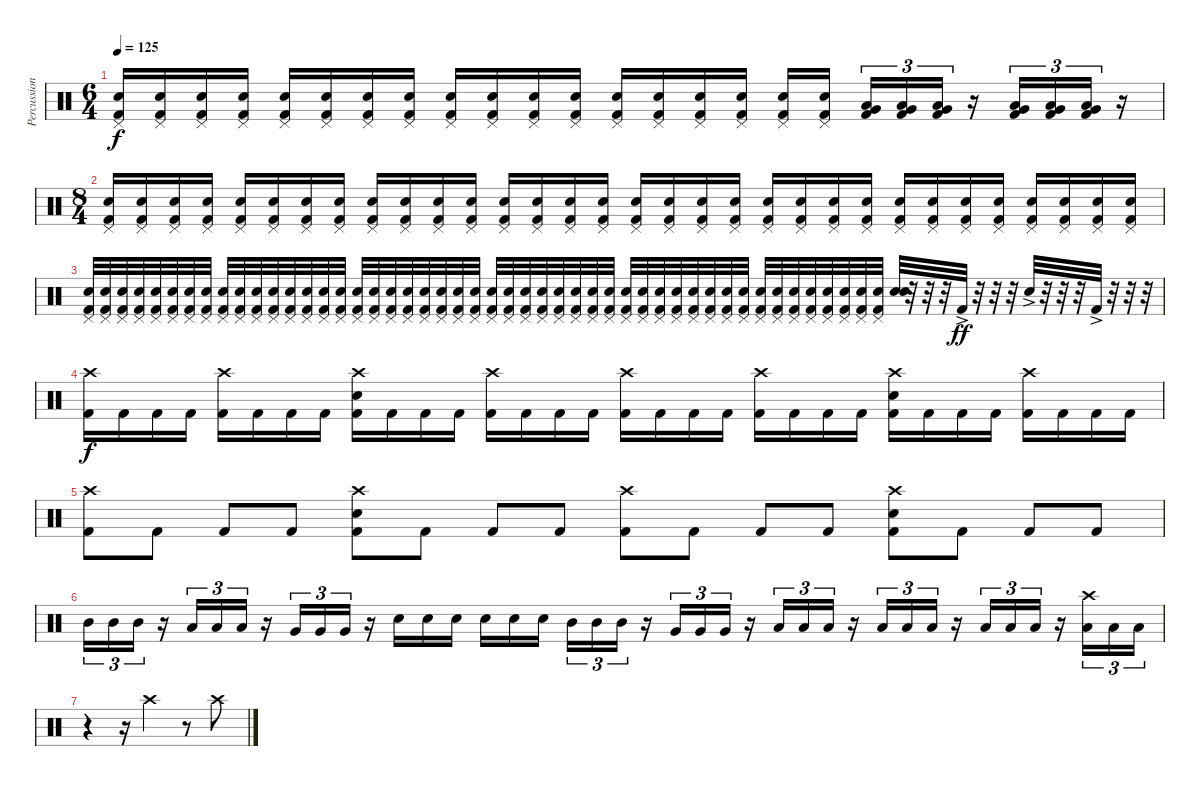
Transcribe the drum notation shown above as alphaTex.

\track ("Percussion" "Percussion") {instrument percussion}
\staff {score}
\articulation defaults
\ts (6 4)
\tempo 125
\clef neutral
\ks c
("Pedal Hi-Hat (hit)" "Electric Snare (hit)" "Kick (hit) 2").16{dy f} ("Pedal Hi-Hat (hit)" "Electric Snare (hit)" "Kick (hit) 2").16 ("Pedal Hi-Hat (hit)" "Electric Snare (hit)" "Kick (hit) 2").16 ("Pedal Hi-Hat (hit)" "Electric Snare (hit)" "Kick (hit) 2").16 ("Pedal Hi-Hat (hit)" "Electric Snare (hit)" "Kick (hit) 2").16 ("Pedal Hi-Hat (hit)" "Electric Snare (hit)" "Kick (hit) 2").16 ("Pedal Hi-Hat (hit)" "Electric Snare (hit)" "Kick (hit) 2").16 ("Pedal Hi-Hat (hit)" "Electric Snare (hit)" "Kick (hit) 2").16 ("Pedal Hi-Hat (hit)" "Electric Snare (hit)" "Kick (hit) 2").16 ("Pedal Hi-Hat (hit)" "Electric Snare (hit)" "Kick (hit) 2").16 ("Pedal Hi-Hat (hit)" "Electric Snare (hit)" "Kick (hit) 2").16 ("Pedal Hi-Hat (hit)" "Electric Snare (hit)" "Kick (hit) 2").16 ("Pedal Hi-Hat (hit)" "Electric Snare (hit)" "Kick (hit) 2").16 ("Pedal Hi-Hat (hit)" "Electric Snare (hit)" "Kick (hit) 2").16 ("Pedal Hi-Hat (hit)" "Electric Snare (hit)" "Kick (hit) 2").16 ("Pedal Hi-Hat (hit)" "Electric Snare (hit)" "Kick (hit) 2").16 ("Pedal Hi-Hat (hit)" "Electric Snare (hit)" "Kick (hit) 2").16 ("Pedal Hi-Hat (hit)" "Electric Snare (hit)" "Kick (hit) 2").16{beam splitsecondary} ("Very Low Tom (hit)" "Low Floor Tom (hit)" "Kick (hit) 2").16{tu (3 2)} ("Very Low Tom (hit)" "Low Floor Tom (hit)" "Kick (hit) 2").16{tu (3 2)} ("Very Low Tom (hit)" "Low Floor Tom (hit)" "Kick (hit) 2").16{tu (3 2)} r.16 ("Very Low Tom (hit)" "Low Floor Tom (hit)" "Kick (hit) 2").16{tu (3 2)} ("Very Low Tom (hit)" "Low Floor Tom (hit)" "Kick (hit) 2").16{tu (3 2)} ("Very Low Tom (hit)" "Low Floor Tom (hit)" "Kick (hit) 2").16{tu (3 2)} r.16 |
\ts (8 4)
("Pedal Hi-Hat (hit)" "Electric Snare (hit)" "Kick (hit) 2").16 ("Pedal Hi-Hat (hit)" "Electric Snare (hit)" "Kick (hit) 2").16 ("Pedal Hi-Hat (hit)" "Electric Snare (hit)" "Kick (hit) 2").16 ("Pedal Hi-Hat (hit)" "Electric Snare (hit)" "Kick (hit) 2").16 ("Pedal Hi-Hat (hit)" "Electric Snare (hit)" "Kick (hit) 2").16 ("Pedal Hi-Hat (hit)" "Electric Snare (hit)" "Kick (hit) 2").16 ("Pedal Hi-Hat (hit)" "Electric Snare (hit)" "Kick (hit) 2").16 ("Pedal Hi-Hat (hit)" "Electric Snare (hit)" "Kick (hit) 2").16 ("Pedal Hi-Hat (hit)" "Electric Snare (hit)" "Kick (hit) 2").16 ("Pedal Hi-Hat (hit)" "Electric Snare (hit)" "Kick (hit) 2").16 ("Pedal Hi-Hat (hit)" "Electric Snare (hit)" "Kick (hit) 2").16 ("Pedal Hi-Hat (hit)" "Electric Snare (hit)" "Kick (hit) 2").16 ("Pedal Hi-Hat (hit)" "Electric Snare (hit)" "Kick (hit) 2").16 ("Pedal Hi-Hat (hit)" "Electric Snare (hit)" "Kick (hit) 2").16 ("Pedal Hi-Hat (hit)" "Electric Snare (hit)" "Kick (hit) 2").16 ("Pedal Hi-Hat (hit)" "Electric Snare (hit)" "Kick (hit) 2").16 ("Pedal Hi-Hat (hit)" "Electric Snare (hit)" "Kick (hit) 2").16 ("Pedal Hi-Hat (hit)" "Electric Snare (hit)" "Kick (hit) 2").16 ("Pedal Hi-Hat (hit)" "Electric Snare (hit)" "Kick (hit) 2").16 ("Pedal Hi-Hat (hit)" "Electric Snare (hit)" "Kick (hit) 2").16 ("Pedal Hi-Hat (hit)" "Electric Snare (hit)" "Kick (hit) 2").16 ("Pedal Hi-Hat (hit)" "Electric Snare (hit)" "Kick (hit) 2").16 ("Pedal Hi-Hat (hit)" "Electric Snare (hit)" "Kick (hit) 2").16 ("Pedal Hi-Hat (hit)" "Electric Snare (hit)" "Kick (hit) 2").16 ("Pedal Hi-Hat (hit)" "Electric Snare (hit)" "Kick (hit) 2").16 ("Pedal Hi-Hat (hit)" "Electric Snare (hit)" "Kick (hit) 2").16 ("Pedal Hi-Hat (hit)" "Electric Snare (hit)" "Kick (hit) 2").16 ("Pedal Hi-Hat (hit)" "Electric Snare (hit)" "Kick (hit) 2").16 ("Pedal Hi-Hat (hit)" "Electric Snare (hit)" "Kick (hit) 2").16 ("Pedal Hi-Hat (hit)" "Electric Snare (hit)" "Kick (hit) 2").16 ("Pedal Hi-Hat (hit)" "Electric Snare (hit)" "Kick (hit) 2").16 ("Pedal Hi-Hat (hit)" "Electric Snare (hit)" "Kick (hit) 2").16 |
("Pedal Hi-Hat (hit)" "Electric Snare (hit)" "Kick (hit) 2").32 ("Pedal Hi-Hat (hit)" "Electric Snare (hit)" "Kick (hit) 2").32 ("Pedal Hi-Hat (hit)" "Electric Snare (hit)" "Kick (hit) 2").32 ("Pedal Hi-Hat (hit)" "Electric Snare (hit)" "Kick (hit) 2").32 ("Pedal Hi-Hat (hit)" "Electric Snare (hit)" "Kick (hit) 2").32 ("Pedal Hi-Hat (hit)" "Electric Snare (hit)" "Kick (hit) 2").32 ("Pedal Hi-Hat (hit)" "Electric Snare (hit)" "Kick (hit) 2").32 ("Pedal Hi-Hat (hit)" "Electric Snare (hit)" "Kick (hit) 2").32 ("Pedal Hi-Hat (hit)" "Electric Snare (hit)" "Kick (hit) 2").32 ("Pedal Hi-Hat (hit)" "Electric Snare (hit)" "Kick (hit) 2").32 ("Pedal Hi-Hat (hit)" "Electric Snare (hit)" "Kick (hit) 2").32 ("Pedal Hi-Hat (hit)" "Electric Snare (hit)" "Kick (hit) 2").32 ("Pedal Hi-Hat (hit)" "Electric Snare (hit)" "Kick (hit) 2").32 ("Pedal Hi-Hat (hit)" "Electric Snare (hit)" "Kick (hit) 2").32 ("Pedal Hi-Hat (hit)" "Electric Snare (hit)" "Kick (hit) 2").32 ("Pedal Hi-Hat (hit)" "Electric Snare (hit)" "Kick (hit) 2").32 ("Pedal Hi-Hat (hit)" "Electric Snare (hit)" "Kick (hit) 2").32 ("Pedal Hi-Hat (hit)" "Electric Snare (hit)" "Kick (hit) 2").32 ("Pedal Hi-Hat (hit)" "Electric Snare (hit)" "Kick (hit) 2").32 ("Pedal Hi-Hat (hit)" "Electric Snare (hit)" "Kick (hit) 2").32 ("Pedal Hi-Hat (hit)" "Electric Snare (hit)" "Kick (hit) 2").32 ("Pedal Hi-Hat (hit)" "Electric Snare (hit)" "Kick (hit) 2").32 ("Pedal Hi-Hat (hit)" "Electric Snare (hit)" "Kick (hit) 2").32 ("Pedal Hi-Hat (hit)" "Electric Snare (hit)" "Kick (hit) 2").32 ("Pedal Hi-Hat (hit)" "Electric Snare (hit)" "Kick (hit) 2").32 ("Pedal Hi-Hat (hit)" "Electric Snare (hit)" "Kick (hit) 2").32 ("Pedal Hi-Hat (hit)" "Electric Snare (hit)" "Kick (hit) 2").32 ("Pedal Hi-Hat (hit)" "Electric Snare (hit)" "Kick (hit) 2").32 ("Pedal Hi-Hat (hit)" "Electric Snare (hit)" "Kick (hit) 2").32 ("Pedal Hi-Hat (hit)" "Electric Snare (hit)" "Kick (hit) 2").32 ("Pedal Hi-Hat (hit)" "Electric Snare (hit)" "Kick (hit) 2").32 ("Pedal Hi-Hat (hit)" "Electric Snare (hit)" "Kick (hit) 2").32 ("Pedal Hi-Hat (hit)" "Electric Snare (hit)" "Kick (hit) 2").32 ("Pedal Hi-Hat (hit)" "Electric Snare (hit)" "Kick (hit) 2").32 ("Pedal Hi-Hat (hit)" "Electric Snare (hit)" "Kick (hit) 2").32 ("Pedal Hi-Hat (hit)" "Electric Snare (hit)" "Kick (hit) 2").32 ("Pedal Hi-Hat (hit)" "Electric Snare (hit)" "Kick (hit) 2").32 ("Pedal Hi-Hat (hit)" "Electric Snare (hit)" "Kick (hit) 2").32 ("Pedal Hi-Hat (hit)" "Electric Snare (hit)" "Kick (hit) 2").32 ("Pedal Hi-Hat (hit)" "Electric Snare (hit)" "Kick (hit) 2").32 ("Pedal Hi-Hat (hit)" "Electric Snare (hit)" "Kick (hit) 2").32 ("Pedal Hi-Hat (hit)" "Electric Snare (hit)" "Kick (hit) 2").32 ("Pedal Hi-Hat (hit)" "Electric Snare (hit)" "Kick (hit) 2").32 ("Pedal Hi-Hat (hit)" "Electric Snare (hit)" "Kick (hit) 2").32 ("Pedal Hi-Hat (hit)" "Electric Snare (hit)" "Kick (hit) 2").32 ("Pedal Hi-Hat (hit)" "Electric Snare (hit)" "Kick (hit) 2").32 ("Pedal Hi-Hat (hit)" "Electric Snare (hit)" "Kick (hit) 2").32 ("Pedal Hi-Hat (hit)" "Electric Snare (hit)" "Kick (hit) 2").32 ("Electric Snare (hit)" "Electric Snare (hit)").32 r.32 r.32 r.32 "Kick (hit) 2"{ac}.32{dy ff} r.32 r.32 r.32 "Electric Snare (hit)"{ac}.32 r.32 r.32 r.32 "Kick (hit) 2"{ac}.32 r.32 r.32 r.32 |
("Crash high (hit)" "Kick (hit) 2").16{dy f} "Kick (hit) 2".16 "Kick (hit) 2".16 "Kick (hit) 2".16 ("Crash high (hit)" "Kick (hit) 2").16 "Kick (hit) 2".16 "Kick (hit) 2".16 "Kick (hit) 2".16 ("Crash high (hit)" "Electric Snare (hit)" "Kick (hit) 2").16 "Kick (hit) 2".16 "Kick (hit) 2".16 "Kick (hit) 2".16 ("Crash high (hit)" "Kick (hit) 2").16 "Kick (hit) 2".16 "Kick (hit) 2".16 "Kick (hit) 2".16 ("Crash high (hit)" "Kick (hit) 2").16 "Kick (hit) 2".16 "Kick (hit) 2".16 "Kick (hit) 2".16 ("Crash high (hit)" "Kick (hit) 2").16 "Kick (hit) 2".16 "Kick (hit) 2".16 "Kick (hit) 2".16 ("Crash high (hit)" "Electric Snare (hit)" "Kick (hit) 2").16 "Kick (hit) 2".16 "Kick (hit) 2".16 "Kick (hit) 2".16 ("Crash high (hit)" "Kick (hit) 2").16 "Kick (hit) 2".16 "Kick (hit) 2".16 "Kick (hit) 2".16 |
("Crash high (hit)" "Kick (hit) 2").8 "Kick (hit) 2".8 "Kick (hit) 2".8 "Kick (hit) 2".8 ("Crash high (hit)" "Electric Snare (hit)" "Kick (hit) 2").8 "Kick (hit) 2".8 "Kick (hit) 2".8 "Kick (hit) 2".8 ("Crash high (hit)" "Kick (hit) 2").8 "Kick (hit) 2".8 "Kick (hit) 2".8 "Kick (hit) 2".8 ("Crash high (hit)" "Electric Snare (hit)" "Kick (hit) 2").8 "Kick (hit) 2".8 "Kick (hit) 2".8 "Kick (hit) 2".8 |
"Mid Tom (hit)".16{tu (3 2)} "Mid Tom (hit)".16{tu (3 2)} "Mid Tom (hit)".16{tu (3 2)} r.16 "Low Tom (hit)".16{tu (3 2)} "Low Tom (hit)".16{tu (3 2)} "Low Tom (hit)".16{tu (3 2)} r.16 "Very Low Tom (hit)".16{tu (3 2)} "Very Low Tom (hit)".16{tu (3 2)} "Very Low Tom (hit)".16{tu (3 2)} r.16 "Electric Snare (hit)".16 "Electric Snare (hit)".16 "Electric Snare (hit)".16 "Electric Snare (hit)".16 "Electric Snare (hit)".16 "Electric Snare (hit)".16{beam splitsecondary} "Mid Tom (hit)".16{tu (3 2)} "Mid Tom (hit)".16{tu (3 2)} "Mid Tom (hit)".16{tu (3 2)} r.16 "Very Low Tom (hit)".16{tu (3 2)} "Very Low Tom (hit)".16{tu (3 2)} "Very Low Tom (hit)".16{tu (3 2)} r.16 "Low Floor Tom (hit)".16{tu (3 2)} "Low Floor Tom (hit)".16{tu (3 2)} "Low Floor Tom (hit)".16{tu (3 2)} r.16 "Low Floor Tom (hit)".16{tu (3 2)} "Low Floor Tom (hit)".16{tu (3 2)} "Low Floor Tom (hit)".16{tu (3 2)} r.16 "Low Floor Tom (hit)".16{tu (3 2)} "Low Floor Tom (hit)".16{tu (3 2)} "Low Floor Tom (hit)".16{tu (3 2)} r.16 ("Crash high (hit)" "Low Floor Tom (hit)").16{tu (3 2)} "Low Floor Tom (hit)".16{tu (3 2)} "Low Floor Tom (hit)".16{tu (3 2)} |
r.4 r.16 "Crash high (hit)".4 r.8 "Crash high (hit)".8
